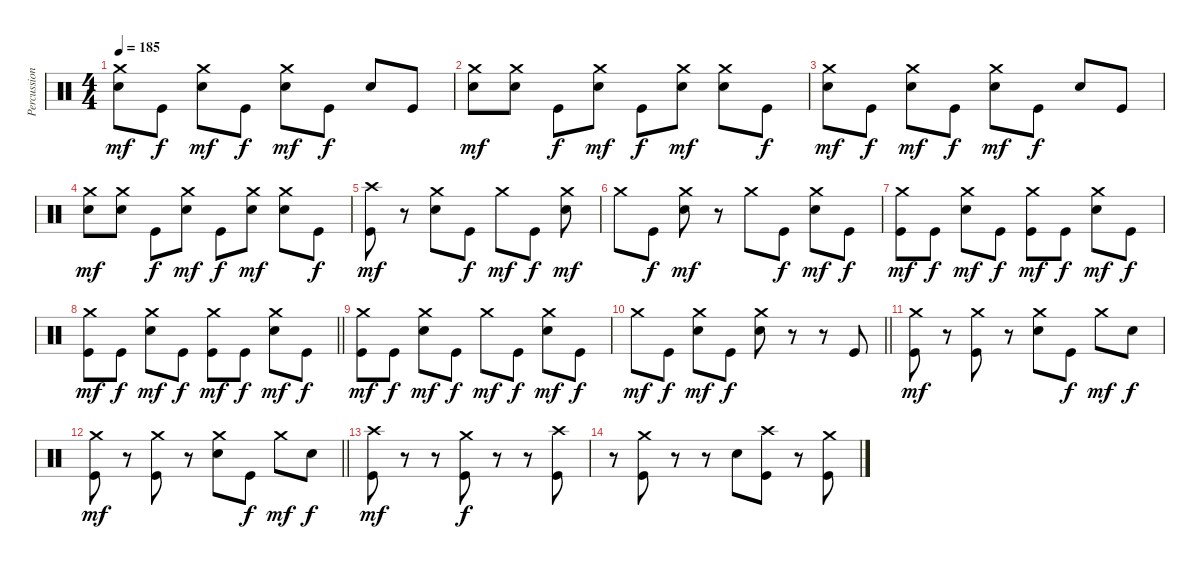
\track ("Percussion" "Percussion") {instrument percussion}
\staff {score}
\articulation defaults
\ts (4 4)
\tempo 185
\clef neutral
\ks c
("Crash medium (hit)" "Electric Snare (hit)").8{dy mf} "Kick (hit)".8{dy f} ("Crash medium (hit)" "Electric Snare (hit)").8{dy mf} "Kick (hit)".8{dy f} ("Crash medium (hit)" "Electric Snare (hit)").8{dy mf} "Kick (hit)".8{dy f} "Electric Snare (hit)".8 "Kick (hit)".8 |
("Crash medium (hit)" "Electric Snare (hit)").8{dy mf} ("Crash medium (hit)" "Electric Snare (hit)").8 "Kick (hit)".8{dy f} ("Crash medium (hit)" "Electric Snare (hit)").8{dy mf} "Kick (hit)".8{dy f} ("Crash medium (hit)" "Electric Snare (hit)").8{dy mf} ("Crash medium (hit)" "Electric Snare (hit)").8 "Kick (hit)".8{dy f} |
("Crash medium (hit)" "Electric Snare (hit)").8{dy mf} "Kick (hit)".8{dy f} ("Crash medium (hit)" "Electric Snare (hit)").8{dy mf} "Kick (hit)".8{dy f} ("Crash medium (hit)" "Electric Snare (hit)").8{dy mf} "Kick (hit)".8{dy f} "Electric Snare (hit)".8 "Kick (hit)".8 |
("Crash medium (hit)" "Electric Snare (hit)").8{dy mf} ("Crash medium (hit)" "Electric Snare (hit)").8 "Kick (hit)".8{dy f} ("Crash medium (hit)" "Electric Snare (hit)").8{dy mf} "Kick (hit)".8{dy f} ("Crash medium (hit)" "Electric Snare (hit)").8{dy mf} ("Crash medium (hit)" "Electric Snare (hit)").8 "Kick (hit)".8{dy f} |
("Crash high (hit)" "Kick (hit)").8{dy mf} r.8 ("Crash medium (hit)" "Electric Snare (hit)").8 "Kick (hit)".8{dy f} "Crash medium (hit)".8{dy mf} "Kick (hit)".8{dy f} ("Crash medium (hit)" "Electric Snare (hit)").8{dy mf} |
"Crash medium (hit)".8 "Kick (hit)".8{dy f} ("Crash medium (hit)" "Electric Snare (hit)").8{dy mf} r.8 "Crash medium (hit)".8 "Kick (hit)".8{dy f} ("Crash medium (hit)" "Electric Snare (hit)").8{dy mf} "Kick (hit)".8{dy f} |
("Crash medium (hit)" "Kick (hit)").8{dy mf} "Kick (hit)".8{dy f} ("Crash medium (hit)" "Electric Snare (hit)").8{dy mf} "Kick (hit)".8{dy f} ("Crash medium (hit)" "Kick (hit)").8{dy mf} "Kick (hit)".8{dy f} ("Crash medium (hit)" "Electric Snare (hit)").8{dy mf} "Kick (hit)".8{dy f} |
\barLineRight lightlight
("Crash medium (hit)" "Kick (hit)").8{dy mf} "Kick (hit)".8{dy f} ("Crash medium (hit)" "Electric Snare (hit)").8{dy mf} "Kick (hit)".8{dy f} ("Crash medium (hit)" "Kick (hit)").8{dy mf} "Kick (hit)".8{dy f} ("Crash medium (hit)" "Electric Snare (hit)").8{dy mf} "Kick (hit)".8{dy f} |
("Crash medium (hit)" "Kick (hit)").8{dy mf} "Kick (hit)".8{dy f} ("Crash medium (hit)" "Electric Snare (hit)").8{dy mf} "Kick (hit)".8{dy f} "Crash medium (hit)".8{dy mf} "Kick (hit)".8{dy f} ("Crash medium (hit)" "Electric Snare (hit)").8{dy mf} "Kick (hit)".8{dy f} |
\barLineRight lightlight "Crash medium (hit)".8{dy mf} "Kick (hit)".8{dy f}
("Crash medium (hit)" "Electric Snare (hit)").8{dy mf} "Kick (hit)".8{dy f} ("Crash medium (hit)" "Electric Snare (hit)").8 r.8 r.8 "Kick (hit)".8 |
("Crash medium (hit)" "Kick (hit)").8{dy mf} r.8 ("Crash medium (hit)" "Kick (hit)").8 r.8 ("Crash medium (hit)" "Electric Snare (hit)").8 "Kick (hit)".8{dy f} "Crash medium (hit)".8{dy mf} "Electric Snare (hit)".8{dy f} |
\barLineRight lightlight
("Crash medium (hit)" "Kick (hit)").8{dy mf} r.8 ("Crash medium (hit)" "Kick (hit)").8 r.8 ("Crash medium (hit)" "Electric Snare (hit)").8 "Kick (hit)".8{dy f} "Crash medium (hit)".8{dy mf} "Electric Snare (hit)".8{dy f} |
("Crash high (hit)" "Kick (hit)").8{dy mf} r.8 r.8{volume 0} ("Crash medium (hit)" "Kick (hit)").8{dy f volume 13} r.8 r.8{volume 0} ("Crash high (hit)" "Kick (hit)").8{volume 13} |
r.8{volume 0} ("Crash medium (hit)" "Kick (hit)").8{volume 13} r.8 r.8 "Electric Snare (hit)".8 ("Crash high (hit)" "Kick (hit)").8 r.8 ("Crash medium (hit)" "Kick (hit)").8
